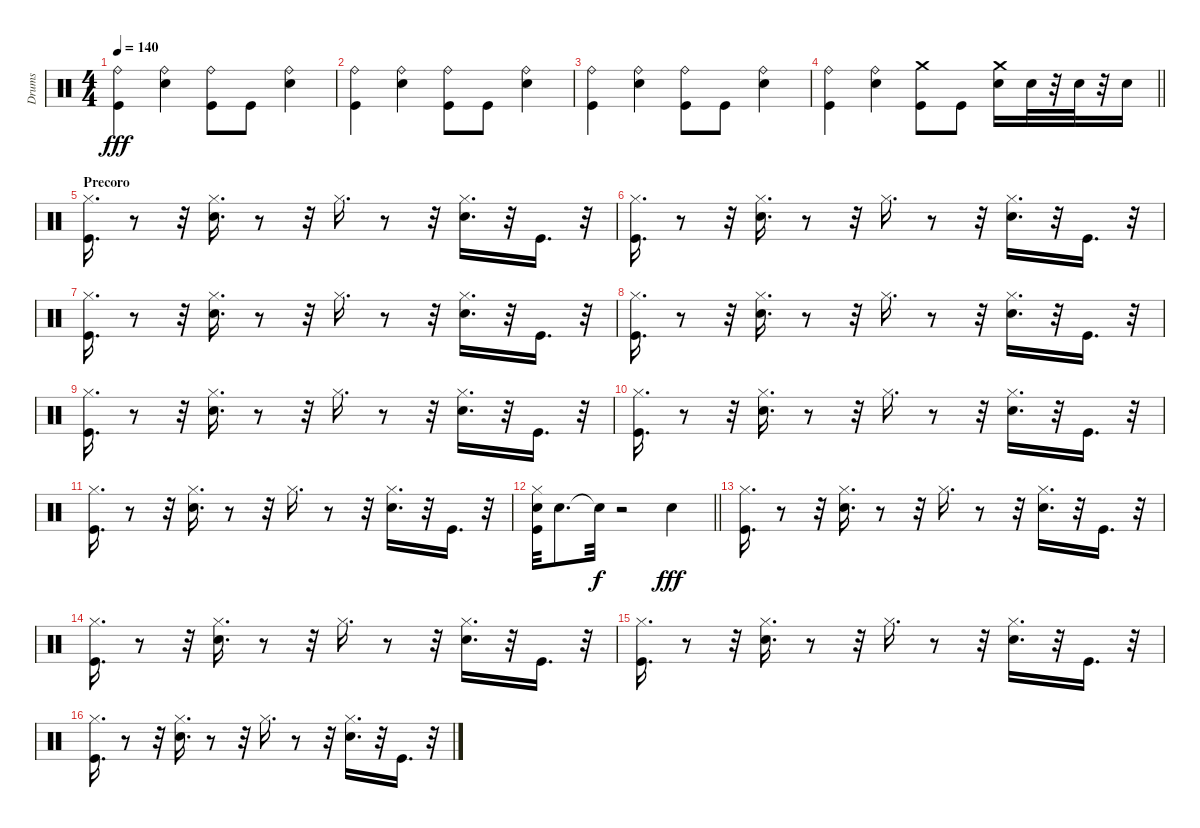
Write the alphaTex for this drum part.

\track ("Drums" "Drums") {instrument percussion}
\staff {score}
\articulation defaults
\ts (4 4)
\tempo 140
\clef neutral
\ks c
("Ride (bell)" "Kick (hit)").4{dy fff} ("Ride (bell)" "Electric Snare (hit)").4 ("Ride (bell)" "Kick (hit)").8 "Kick (hit)".8 ("Ride (bell)" "Electric Snare (hit)").4 |
("Ride (bell)" "Kick (hit)").4 ("Ride (bell)" "Electric Snare (hit)").4 ("Ride (bell)" "Kick (hit)").8 "Kick (hit)".8 ("Ride (bell)" "Electric Snare (hit)").4 |
("Ride (bell)" "Kick (hit)").4 ("Ride (bell)" "Electric Snare (hit)").4 ("Ride (bell)" "Kick (hit)").8 "Kick (hit)".8 ("Ride (bell)" "Electric Snare (hit)").4 |
\barLineRight lightlight
("Ride (bell)" "Kick (hit)").4 ("Ride (bell)" "Electric Snare (hit)").4 ("Crash medium (hit)" "Kick (hit)").8 "Kick (hit)".8 ("Crash medium (hit)" "Electric Snare (hit)").16 "Electric Snare (hit)".32 r.32 "Electric Snare (hit)".32 r.32 "Electric Snare (hit)".16 |
\section ("" "Precoro")
("Hi-Hat (closed)" "Kick (hit)").16{d} r.8 r.32 ("Hi-Hat (closed)" "Electric Snare (hit)").16{d} r.8 r.32 "Hi-Hat (closed)".16{d} r.8 r.32 ("Hi-Hat (closed)" "Electric Snare (hit)").16{d} r.32 "Kick (hit)".16{d} r.32 |
("Hi-Hat (closed)" "Kick (hit)").16{d} r.8 r.32 ("Hi-Hat (closed)" "Electric Snare (hit)").16{d} r.8 r.32 "Hi-Hat (closed)".16{d} r.8 r.32 ("Hi-Hat (closed)" "Electric Snare (hit)").16{d} r.32 "Kick (hit)".16{d} r.32 |
("Hi-Hat (closed)" "Kick (hit)").16{d} r.8 r.32 ("Hi-Hat (closed)" "Electric Snare (hit)").16{d} r.8 r.32 "Hi-Hat (closed)".16{d} r.8 r.32 ("Hi-Hat (closed)" "Electric Snare (hit)").16{d} r.32 "Kick (hit)".16{d} r.32 |
("Hi-Hat (closed)" "Kick (hit)").16{d} r.8 r.32 ("Hi-Hat (closed)" "Electric Snare (hit)").16{d} r.8 r.32 "Hi-Hat (closed)".16{d} r.8 r.32 ("Hi-Hat (closed)" "Electric Snare (hit)").16{d} r.32 "Kick (hit)".16{d} r.32 |
("Hi-Hat (closed)" "Kick (hit)").16{d} r.8 r.32 ("Hi-Hat (closed)" "Electric Snare (hit)").16{d} r.8 r.32 "Hi-Hat (closed)".16{d} r.8 r.32 ("Hi-Hat (closed)" "Electric Snare (hit)").16{d} r.32 "Kick (hit)".16{d} r.32 |
("Hi-Hat (closed)" "Kick (hit)").16{d} r.8 r.32 ("Hi-Hat (closed)" "Electric Snare (hit)").16{d} r.8 r.32 "Hi-Hat (closed)".16{d} r.8 r.32 ("Hi-Hat (closed)" "Electric Snare (hit)").16{d} r.32 "Kick (hit)".16{d} r.32 |
("Hi-Hat (closed)" "Kick (hit)").16{d} r.8 r.32 ("Hi-Hat (closed)" "Electric Snare (hit)").16{d} r.8 r.32 "Hi-Hat (closed)".16{d} r.8 r.32 ("Hi-Hat (closed)" "Electric Snare (hit)").16{d} r.32 "Kick (hit)".16{d} r.32 |
\barLineRight lightlight
("Hi-Hat (closed)" "Electric Snare (hit)" "Kick (hit)").32 "Electric Snare (hit)".8{d} "Snare (hit)"{t}.32{dy f} r.2 "Electric Snare (hit)".4{dy fff} |
("Hi-Hat (closed)" "Kick (hit)").16{d} r.8 r.32 ("Hi-Hat (closed)" "Electric Snare (hit)").16{d} r.8 r.32 "Hi-Hat (closed)".16{d} r.8 r.32 ("Hi-Hat (closed)" "Electric Snare (hit)").16{d} r.32 "Kick (hit)".16{d} r.32 |
("Hi-Hat (closed)" "Kick (hit)").16{d} r.8 r.32 ("Hi-Hat (closed)" "Electric Snare (hit)").16{d} r.8 r.32 "Hi-Hat (closed)".16{d} r.8 r.32 ("Hi-Hat (closed)" "Electric Snare (hit)").16{d} r.32 "Kick (hit)".16{d} r.32 |
("Hi-Hat (closed)" "Kick (hit)").16{d} r.8 r.32 ("Hi-Hat (closed)" "Electric Snare (hit)").16{d} r.8 r.32 "Hi-Hat (closed)".16{d} r.8 r.32 ("Hi-Hat (closed)" "Electric Snare (hit)").16{d} r.32 "Kick (hit)".16{d} r.32 |
("Hi-Hat (closed)" "Kick (hit)").16{d} r.8 r.32 ("Hi-Hat (closed)" "Electric Snare (hit)").16{d} r.8 r.32 "Hi-Hat (closed)".16{d} r.8 r.32 ("Hi-Hat (closed)" "Electric Snare (hit)").16{d} r.32 "Kick (hit)".16{d} r.32
